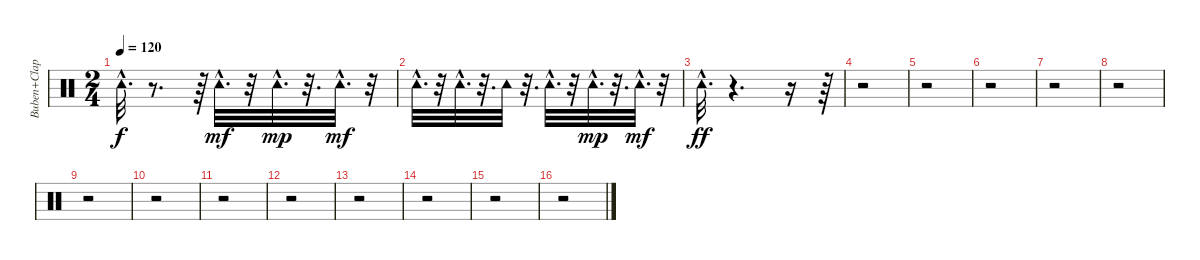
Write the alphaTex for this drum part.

\track ("Buben+Clap" "Buben+Clap") {instrument percussion}
\staff {score}
\articulation defaults
\ts (2 4)
\tempo 120
\clef neutral
\ks c "Tambourine (hit)"{hac}.32{d dy f}
r.8{d} r.64 "Tambourine (hit)"{hac}.32{d dy mf} r.32 "Tambourine (hit)"{hac}.32{d dy mp} r.32{d} "Tambourine (hit)"{hac}.32{d dy mf} r.32 |
"Tambourine (hit)"{hac}.32{d} r.32 "Tambourine (hit)"{hac}.32{d} r.32{d} "Tambourine (hit)".32 r.32{d} "Tambourine (hit)"{hac}.32{d} r.32 "Tambourine (hit)"{hac}.32{d dy mp} r.32{d} "Tambourine (hit)"{hac}.32{d dy mf} r.32 |
"Tambourine (hit)"{hac}.32{d dy ff} r.4{d} r.16 r.64 |
r.2 |
r.2 |
r.2 |
r.2 |
r.2 |
r.2 |
r.2 |
r.2 |
r.2 |
r.2 |
r.2 |
r.2 |
r.2
